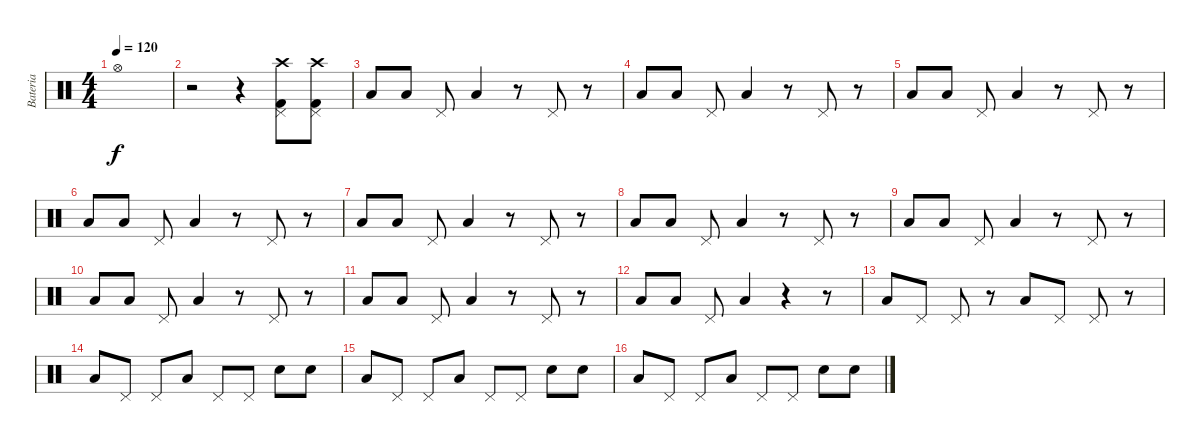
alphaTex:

\track ("Bateria" "Bateria") {instrument percussion}
\staff {score}
\articulation defaults
\ts (4 4)
\tempo 120
\clef neutral
\ks c "Hi-Hat (open)".1{dy f}
|
r.2 r.4 ("Crash high (hit)" "Kick (hit) 2" "Pedal Hi-Hat (hit)").8 ("Crash high (hit)" "Kick (hit) 2" "Pedal Hi-Hat (hit)").8 |
"Low Tom (hit)".8 "Low Tom (hit)".8 "Pedal Hi-Hat (hit)".8 "Low Tom (hit)".4 r.8 "Pedal Hi-Hat (hit)".8 r.8 |
"Low Tom (hit)".8 "Low Tom (hit)".8 "Pedal Hi-Hat (hit)".8 "Low Tom (hit)".4 r.8 "Pedal Hi-Hat (hit)".8 r.8 |
"Low Tom (hit)".8 "Low Tom (hit)".8 "Pedal Hi-Hat (hit)".8 "Low Tom (hit)".4 r.8 "Pedal Hi-Hat (hit)".8 r.8 |
"Low Tom (hit)".8 "Low Tom (hit)".8 "Pedal Hi-Hat (hit)".8 "Low Tom (hit)".4 r.8 "Pedal Hi-Hat (hit)".8 r.8 |
"Low Tom (hit)".8 "Low Tom (hit)".8 "Pedal Hi-Hat (hit)".8 "Low Tom (hit)".4 r.8 "Pedal Hi-Hat (hit)".8 r.8 |
"Low Tom (hit)".8 "Low Tom (hit)".8 "Pedal Hi-Hat (hit)".8 "Low Tom (hit)".4 r.8 "Pedal Hi-Hat (hit)".8 r.8 |
"Low Tom (hit)".8 "Low Tom (hit)".8 "Pedal Hi-Hat (hit)".8 "Low Tom (hit)".4 r.8 "Pedal Hi-Hat (hit)".8 r.8 |
"Low Tom (hit)".8 "Low Tom (hit)".8 "Pedal Hi-Hat (hit)".8 "Low Tom (hit)".4 r.8 "Pedal Hi-Hat (hit)".8 r.8 |
"Low Tom (hit)".8 "Low Tom (hit)".8 "Pedal Hi-Hat (hit)".8 "Low Tom (hit)".4 r.8 "Pedal Hi-Hat (hit)".8 r.8 |
"Low Tom (hit)".8 "Low Tom (hit)".8 "Pedal Hi-Hat (hit)".8 "Low Tom (hit)".4 r.4 r.8 |
"Low Tom (hit)".8 "Pedal Hi-Hat (hit)".8 "Pedal Hi-Hat (hit)".8 r.8 "Low Tom (hit)".8 "Pedal Hi-Hat (hit)".8 "Pedal Hi-Hat (hit)".8 r.8 |
"Low Tom (hit)".8 "Pedal Hi-Hat (hit)".8 "Pedal Hi-Hat (hit)".8 "Low Tom (hit)".8 "Pedal Hi-Hat (hit)".8 "Pedal Hi-Hat (hit)".8 "Snare (hit) 2".8 "Snare (hit) 2".8 |
"Low Tom (hit)".8 "Pedal Hi-Hat (hit)".8 "Pedal Hi-Hat (hit)".8 "Low Tom (hit)".8 "Pedal Hi-Hat (hit)".8 "Pedal Hi-Hat (hit)".8 "Snare (hit) 2".8 "Snare (hit) 2".8 |
"Low Tom (hit)".8 "Pedal Hi-Hat (hit)".8 "Pedal Hi-Hat (hit)".8 "Low Tom (hit)".8 "Pedal Hi-Hat (hit)".8 "Pedal Hi-Hat (hit)".8 "Snare (hit) 2".8 "Snare (hit) 2".8
